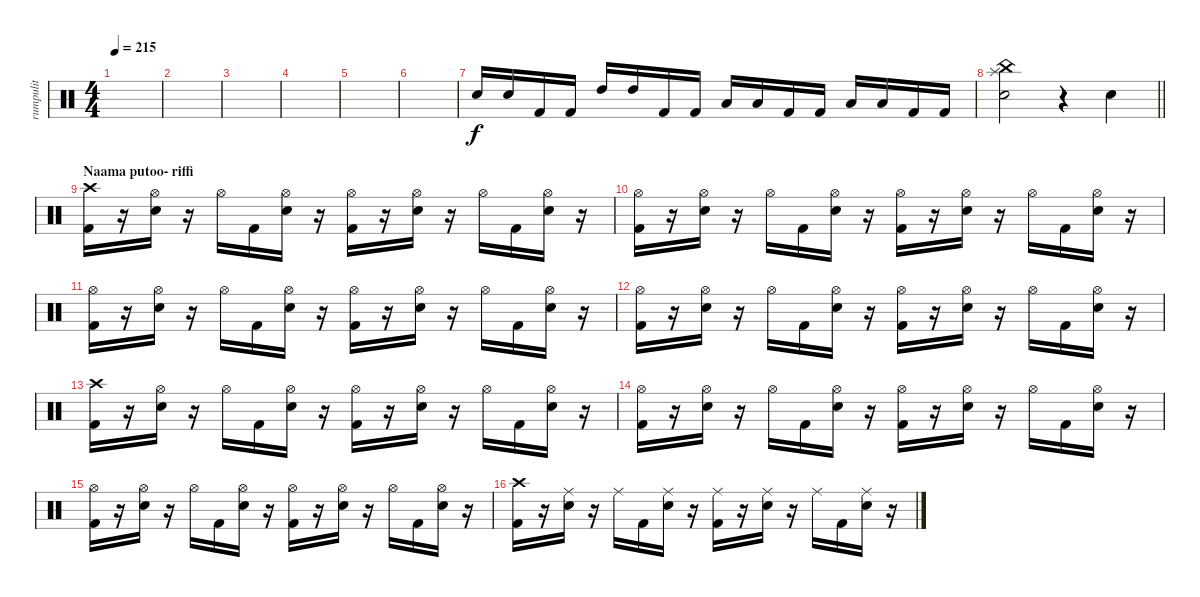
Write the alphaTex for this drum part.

\track ("rumpulit" "rumpulit") {instrument percussion}
\staff {score}
\articulation defaults
\ts (4 4)
\tempo 215
\clef neutral
\ks c
|
|
|
|
|
|
"Electric Snare (hit)".16 "Electric Snare (hit)".16 "Kick (hit) 2".16 "Kick (hit) 2".16 "High Tom (hit)".16 "High Tom (hit)".16 "Kick (hit) 2".16 "Kick (hit) 2".16 "Low Tom (hit)".16 "Low Tom (hit)".16 "Kick (hit) 2".16 "Kick (hit) 2".16 "Low Floor Tom (hit)".16 "Low Floor Tom (hit)".16 "Kick (hit) 2".16 "Kick (hit) 2".16 |
\barLineRight lightlight
("China (hit)" "Electric Snare (hit)" "Splash (hit)").2 r.4 "Electric Snare (hit)".4 |
\section ("" "Naama putoo- riffi")
("Crash high (hit)" "Kick (hit) 2").16 r.16 ("Hi-Hat (open)" "Electric Snare (hit)").16 r.16 "Hi-Hat (open)".16 "Kick (hit) 2".16 ("Hi-Hat (open)" "Electric Snare (hit)").16 r.16 ("Hi-Hat (open)" "Kick (hit) 2").16 r.16 ("Hi-Hat (open)" "Electric Snare (hit)").16 r.16 "Hi-Hat (open)".16 "Kick (hit) 2".16 ("Hi-Hat (open)" "Electric Snare (hit)").16 r.16 |
("Hi-Hat (open)" "Kick (hit) 2").16 r.16 ("Hi-Hat (open)" "Electric Snare (hit)").16 r.16 "Hi-Hat (open)".16 "Kick (hit) 2".16 ("Hi-Hat (open)" "Electric Snare (hit)").16 r.16 ("Hi-Hat (open)" "Kick (hit) 2").16 r.16 ("Hi-Hat (open)" "Electric Snare (hit)").16 r.16 "Hi-Hat (open)".16 "Kick (hit) 2".16 ("Hi-Hat (open)" "Electric Snare (hit)").16 r.16 |
("Hi-Hat (open)" "Kick (hit) 2").16 r.16 ("Hi-Hat (open)" "Electric Snare (hit)").16 r.16 "Hi-Hat (open)".16 "Kick (hit) 2".16 ("Hi-Hat (open)" "Electric Snare (hit)").16 r.16 ("Hi-Hat (open)" "Kick (hit) 2").16 r.16 ("Hi-Hat (open)" "Electric Snare (hit)").16 r.16 "Hi-Hat (open)".16 "Kick (hit) 2".16 ("Hi-Hat (open)" "Electric Snare (hit)").16 r.16 |
("Hi-Hat (open)" "Kick (hit) 2").16 r.16 ("Hi-Hat (open)" "Electric Snare (hit)").16 r.16 "Hi-Hat (open)".16 "Kick (hit) 2".16 ("Hi-Hat (open)" "Electric Snare (hit)").16 r.16 ("Hi-Hat (open)" "Kick (hit) 2").16 r.16 ("Hi-Hat (open)" "Electric Snare (hit)").16 r.16 "Hi-Hat (open)".16 "Kick (hit) 2".16 ("Hi-Hat (open)" "Electric Snare (hit)").16 r.16 |
("Crash high (hit)" "Kick (hit) 2").16 r.16 ("Hi-Hat (open)" "Electric Snare (hit)").16 r.16 "Hi-Hat (open)".16 "Kick (hit) 2".16 ("Hi-Hat (open)" "Electric Snare (hit)").16 r.16 ("Hi-Hat (open)" "Kick (hit) 2").16 r.16 ("Hi-Hat (open)" "Electric Snare (hit)").16 r.16 "Hi-Hat (open)".16 "Kick (hit) 2".16 ("Hi-Hat (open)" "Electric Snare (hit)").16 r.16 |
("Hi-Hat (open)" "Kick (hit) 2").16 r.16 ("Hi-Hat (open)" "Electric Snare (hit)").16 r.16 "Hi-Hat (open)".16 "Kick (hit) 2".16 ("Hi-Hat (open)" "Electric Snare (hit)").16 r.16 ("Hi-Hat (open)" "Kick (hit) 2").16 r.16 ("Hi-Hat (open)" "Electric Snare (hit)").16 r.16 "Hi-Hat (open)".16 "Kick (hit) 2".16 ("Hi-Hat (open)" "Electric Snare (hit)").16 r.16 |
("Hi-Hat (open)" "Kick (hit) 2").16 r.16 ("Hi-Hat (open)" "Electric Snare (hit)").16 r.16 "Hi-Hat (open)".16 "Kick (hit) 2".16 ("Hi-Hat (open)" "Electric Snare (hit)").16 r.16 ("Hi-Hat (open)" "Kick (hit) 2").16 r.16 ("Hi-Hat (open)" "Electric Snare (hit)").16 r.16 "Hi-Hat (open)".16 "Kick (hit) 2".16 ("Hi-Hat (open)" "Electric Snare (hit)").16 r.16 |
("Crash high (hit)" "Kick (hit) 2").16 r.16 ("Ride (middle)" "Electric Snare (hit)").16 r.16 "Ride (middle)".16 "Kick (hit) 2".16 ("Ride (middle)" "Electric Snare (hit)").16 r.16 ("Ride (middle)" "Kick (hit) 2").16 r.16 ("Ride (middle)" "Electric Snare (hit)").16 r.16 "Ride (middle)".16 "Kick (hit) 2".16 ("Ride (middle)" "Electric Snare (hit)").16 r.16
